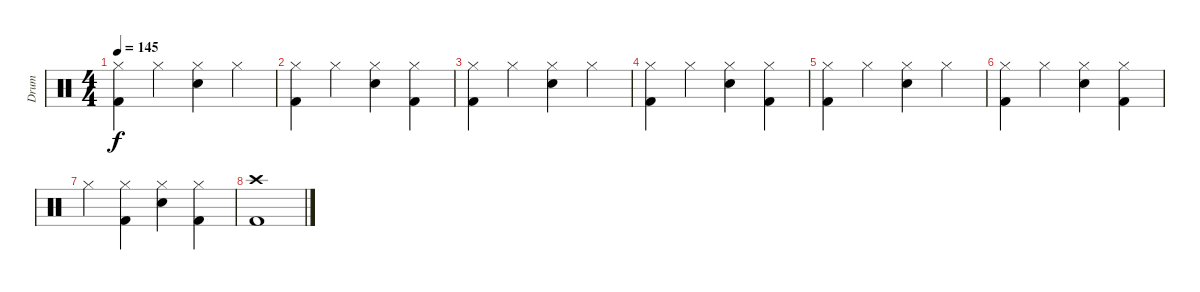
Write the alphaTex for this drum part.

\track ("Drum" "Drum") {instrument percussion}
\staff {score}
\articulation defaults
\ts (4 4)
\tempo 145
\clef neutral
\ks c
("Hi-Hat (closed)" "Kick (hit) 2").4{dy f} "Hi-Hat (closed)".4 ("Hi-Hat (closed)" "Snare (hit) 2").4 "Hi-Hat (closed)".4 |
("Hi-Hat (closed)" "Kick (hit) 2").4 "Hi-Hat (closed)".4 ("Hi-Hat (closed)" "Snare (hit) 2").4 ("Hi-Hat (closed)" "Kick (hit) 2").4 |
("Hi-Hat (closed)" "Kick (hit) 2").4 "Hi-Hat (closed)".4 ("Hi-Hat (closed)" "Snare (hit) 2").4 "Hi-Hat (closed)".4 |
("Hi-Hat (closed)" "Kick (hit) 2").4 "Hi-Hat (closed)".4 ("Hi-Hat (closed)" "Snare (hit) 2").4 ("Hi-Hat (closed)" "Kick (hit) 2").4 |
("Hi-Hat (closed)" "Kick (hit) 2").4 "Hi-Hat (closed)".4 ("Hi-Hat (closed)" "Snare (hit) 2").4 "Hi-Hat (closed)".4 |
("Hi-Hat (closed)" "Kick (hit) 2").4 "Hi-Hat (closed)".4 ("Hi-Hat (closed)" "Snare (hit) 2").4 ("Hi-Hat (closed)" "Kick (hit) 2").4 |
"Hi-Hat (closed)".4 ("Hi-Hat (closed)" "Kick (hit) 2").4 ("Hi-Hat (closed)" "Snare (hit) 2").4 ("Hi-Hat (closed)" "Kick (hit) 2").4 |
("Crash high (hit)" "Kick (hit) 2").1
